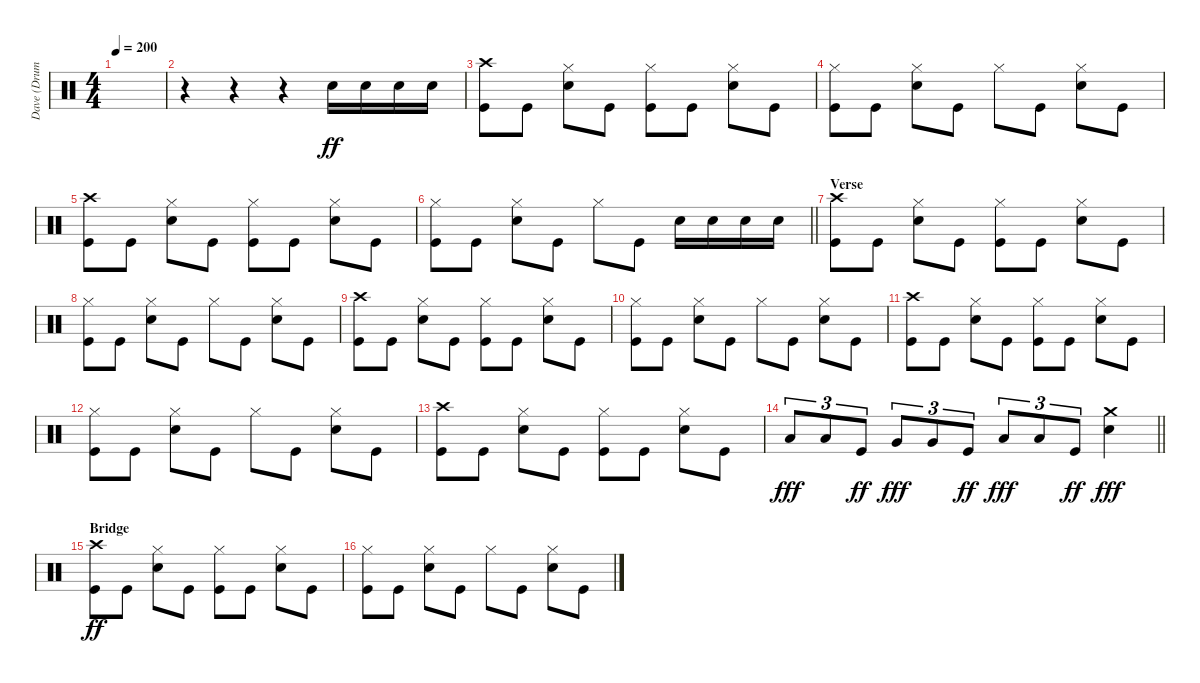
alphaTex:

\track ("Dave (Drums)" "Dave (Drum") {instrument percussion}
\staff {score}
\articulation defaults
\ts (4 4)
\tempo 200
\clef neutral
\ks c
|
r.4 r.4 r.4 "Snare (hit) 2".16{dy ff} "Snare (hit) 2".16 "Snare (hit) 2".16 "Snare (hit) 2".16 |
("Crash high (hit)" "Kick (hit)").8 "Kick (hit)".8 ("Hi-Hat (closed)" "Snare (hit) 2").8 "Kick (hit)".8 ("Hi-Hat (closed)" "Kick (hit)").8 "Kick (hit)".8 ("Hi-Hat (closed)" "Snare (hit) 2").8 "Kick (hit)".8 |
("Hi-Hat (closed)" "Kick (hit)").8 "Kick (hit)".8 ("Hi-Hat (closed)" "Snare (hit) 2").8 "Kick (hit)".8 "Hi-Hat (closed)".8 "Kick (hit)".8 ("Hi-Hat (closed)" "Snare (hit) 2").8 "Kick (hit)".8 |
("Crash high (hit)" "Kick (hit)").8 "Kick (hit)".8 ("Hi-Hat (closed)" "Snare (hit) 2").8 "Kick (hit)".8 ("Hi-Hat (closed)" "Kick (hit)").8 "Kick (hit)".8 ("Hi-Hat (closed)" "Snare (hit) 2").8 "Kick (hit)".8 |
\barLineRight lightlight
("Hi-Hat (closed)" "Kick (hit)").8 "Kick (hit)".8 ("Hi-Hat (closed)" "Snare (hit) 2").8 "Kick (hit)".8 "Hi-Hat (closed)".8 "Kick (hit)".8 "Snare (hit) 2".16 "Snare (hit) 2".16 "Snare (hit) 2".16 "Snare (hit) 2".16 |
\section ("" "Verse")
("Crash high (hit)" "Kick (hit)").8 "Kick (hit)".8 ("Hi-Hat (closed)" "Snare (hit) 2").8 "Kick (hit)".8 ("Hi-Hat (closed)" "Kick (hit)").8 "Kick (hit)".8 ("Hi-Hat (closed)" "Snare (hit) 2").8 "Kick (hit)".8 |
("Hi-Hat (closed)" "Kick (hit)").8 "Kick (hit)".8 ("Hi-Hat (closed)" "Snare (hit) 2").8 "Kick (hit)".8 "Hi-Hat (closed)".8 "Kick (hit)".8 ("Hi-Hat (closed)" "Snare (hit) 2").8 "Kick (hit)".8 |
("Crash high (hit)" "Kick (hit)").8 "Kick (hit)".8 ("Hi-Hat (closed)" "Snare (hit) 2").8 "Kick (hit)".8 ("Hi-Hat (closed)" "Kick (hit)").8 "Kick (hit)".8 ("Hi-Hat (closed)" "Snare (hit) 2").8 "Kick (hit)".8 |
("Hi-Hat (closed)" "Kick (hit)").8 "Kick (hit)".8 ("Hi-Hat (closed)" "Snare (hit) 2").8 "Kick (hit)".8 "Hi-Hat (closed)".8 "Kick (hit)".8 ("Hi-Hat (closed)" "Snare (hit) 2").8 "Kick (hit)".8 |
("Crash high (hit)" "Kick (hit)").8 "Kick (hit)".8 ("Hi-Hat (closed)" "Snare (hit) 2").8 "Kick (hit)".8 ("Hi-Hat (closed)" "Kick (hit)").8 "Kick (hit)".8 ("Hi-Hat (closed)" "Snare (hit) 2").8 "Kick (hit)".8 |
("Hi-Hat (closed)" "Kick (hit)").8 "Kick (hit)".8 ("Hi-Hat (closed)" "Snare (hit) 2").8 "Kick (hit)".8 "Hi-Hat (closed)".8 "Kick (hit)".8 ("Hi-Hat (closed)" "Snare (hit) 2").8 "Kick (hit)".8 |
("Crash high (hit)" "Kick (hit)").8 "Kick (hit)".8 ("Hi-Hat (closed)" "Snare (hit) 2").8 "Kick (hit)".8 ("Hi-Hat (closed)" "Kick (hit)").8 "Kick (hit)".8 ("Hi-Hat (closed)" "Snare (hit) 2").8 "Kick (hit)".8 |
\barLineRight lightlight "Low Tom (hit)".8{tu (3 2) dy fff} "Low Tom (hit)".8{tu (3 2)} "Kick (hit)".8{tu (3 2) dy ff} "Very Low Tom (hit)".8{tu (3 2) dy fff} "Very Low Tom (hit)".8{tu (3 2)} "Kick (hit)".8{tu (3 2) dy ff} "Low Floor Tom (hit)".8{tu (3 2) dy fff} "Low Floor Tom (hit)".8{tu (3 2)} "Kick (hit)".8{tu (3 2) dy ff}
("Crash medium (hit)" "Snare (hit) 2").4{dy fff} |
\section ("" "Bridge")
("Crash high (hit)" "Kick (hit)").8{dy ff} "Kick (hit)".8 ("Hi-Hat (closed)" "Snare (hit) 2").8 "Kick (hit)".8 ("Hi-Hat (closed)" "Kick (hit)").8 "Kick (hit)".8 ("Hi-Hat (closed)" "Snare (hit) 2").8 "Kick (hit)".8 |
("Hi-Hat (closed)" "Kick (hit)").8 "Kick (hit)".8 ("Hi-Hat (closed)" "Snare (hit) 2").8 "Kick (hit)".8 "Hi-Hat (closed)".8 "Kick (hit)".8 ("Hi-Hat (closed)" "Snare (hit) 2").8 "Kick (hit)".8
